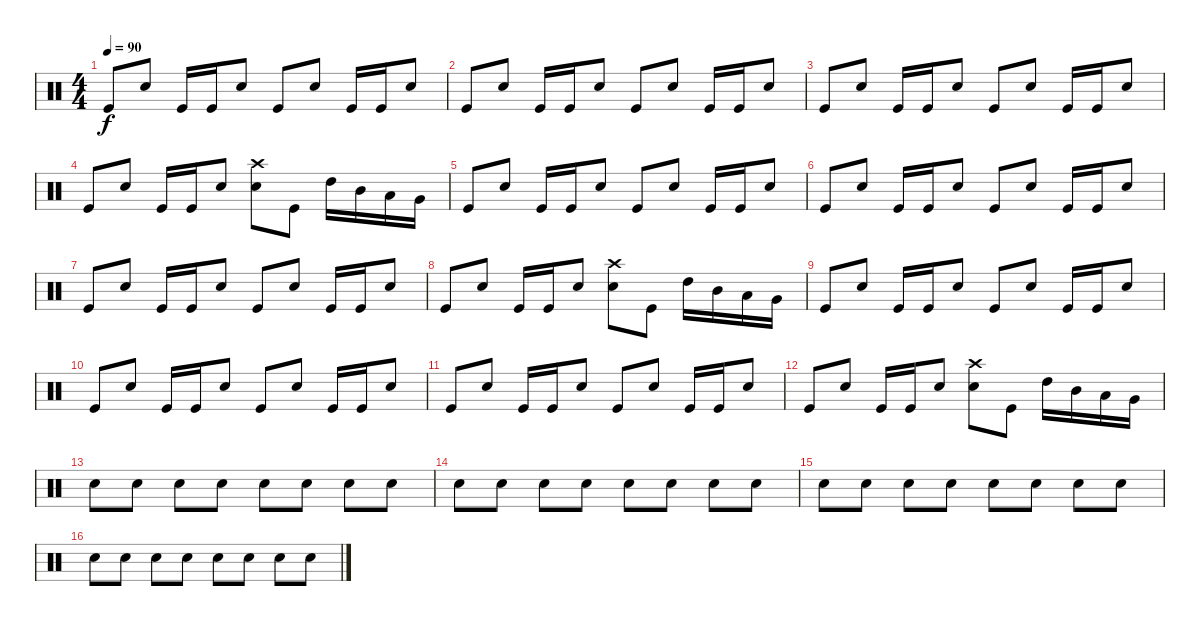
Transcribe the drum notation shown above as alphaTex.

\track "" {instrument percussion}
\staff {score}
\articulation defaults
\ts (4 4)
\tempo 90
\clef neutral
\ks c "Kick (hit)".8{dy f} "Snare (hit) 2".8 "Kick (hit)".16 "Kick (hit)".16 "Snare (hit) 2".8 "Kick (hit)".8 "Snare (hit) 2".8 "Kick (hit)".16 "Kick (hit)".16 "Snare (hit) 2".8
|
"Kick (hit)".8 "Snare (hit) 2".8 "Kick (hit)".16 "Kick (hit)".16 "Snare (hit) 2".8 "Kick (hit)".8 "Snare (hit) 2".8 "Kick (hit)".16 "Kick (hit)".16 "Snare (hit) 2".8 |
"Kick (hit)".8 "Snare (hit) 2".8 "Kick (hit)".16 "Kick (hit)".16 "Snare (hit) 2".8 "Kick (hit)".8 "Snare (hit) 2".8 "Kick (hit)".16 "Kick (hit)".16 "Snare (hit) 2".8 |
"Kick (hit)".8 "Snare (hit) 2".8 "Kick (hit)".16 "Kick (hit)".16 "Snare (hit) 2".8 ("Snare (hit) 2" "Crash high (hit)").8 "Kick (hit)".8 "High Tom (hit)".16 "Mid Tom (hit)".16 "Low Tom (hit)".16 "Very Low Tom (hit)".16 |
"Kick (hit)".8 "Snare (hit) 2".8 "Kick (hit)".16 "Kick (hit)".16 "Snare (hit) 2".8 "Kick (hit)".8 "Snare (hit) 2".8 "Kick (hit)".16 "Kick (hit)".16 "Snare (hit) 2".8 |
"Kick (hit)".8 "Snare (hit) 2".8 "Kick (hit)".16 "Kick (hit)".16 "Snare (hit) 2".8 "Kick (hit)".8 "Snare (hit) 2".8 "Kick (hit)".16 "Kick (hit)".16 "Snare (hit) 2".8 |
"Kick (hit)".8 "Snare (hit) 2".8 "Kick (hit)".16 "Kick (hit)".16 "Snare (hit) 2".8 "Kick (hit)".8 "Snare (hit) 2".8 "Kick (hit)".16 "Kick (hit)".16 "Snare (hit) 2".8 |
"Kick (hit)".8 "Snare (hit) 2".8 "Kick (hit)".16 "Kick (hit)".16 "Snare (hit) 2".8 ("Snare (hit) 2" "Crash high (hit)").8 "Kick (hit)".8 "High Tom (hit)".16 "Mid Tom (hit)".16 "Low Tom (hit)".16 "Very Low Tom (hit)".16 |
"Kick (hit)".8 "Snare (hit) 2".8 "Kick (hit)".16 "Kick (hit)".16 "Snare (hit) 2".8 "Kick (hit)".8 "Snare (hit) 2".8 "Kick (hit)".16 "Kick (hit)".16 "Snare (hit) 2".8 |
"Kick (hit)".8 "Snare (hit) 2".8 "Kick (hit)".16 "Kick (hit)".16 "Snare (hit) 2".8 "Kick (hit)".8 "Snare (hit) 2".8 "Kick (hit)".16 "Kick (hit)".16 "Snare (hit) 2".8 |
"Kick (hit)".8 "Snare (hit) 2".8 "Kick (hit)".16 "Kick (hit)".16 "Snare (hit) 2".8 "Kick (hit)".8 "Snare (hit) 2".8 "Kick (hit)".16 "Kick (hit)".16 "Snare (hit) 2".8 |
"Kick (hit)".8 "Snare (hit) 2".8 "Kick (hit)".16 "Kick (hit)".16 "Snare (hit) 2".8 ("Snare (hit) 2" "Crash high (hit)").8 "Kick (hit)".8 "High Tom (hit)".16 "Mid Tom (hit)".16 "Low Tom (hit)".16 "Very Low Tom (hit)".16 |
"Snare (hit) 2".8 "Snare (hit) 2".8 "Snare (hit) 2".8 "Snare (hit) 2".8 "Snare (hit) 2".8 "Snare (hit) 2".8 "Snare (hit) 2".8 "Snare (hit) 2".8 |
"Snare (hit) 2".8 "Snare (hit) 2".8 "Snare (hit) 2".8 "Snare (hit) 2".8 "Snare (hit) 2".8 "Snare (hit) 2".8 "Snare (hit) 2".8 "Snare (hit) 2".8 |
"Snare (hit) 2".8 "Snare (hit) 2".8 "Snare (hit) 2".8 "Snare (hit) 2".8 "Snare (hit) 2".8 "Snare (hit) 2".8 "Snare (hit) 2".8 "Snare (hit) 2".8 |
"Snare (hit) 2".8 "Snare (hit) 2".8 "Snare (hit) 2".8 "Snare (hit) 2".8 "Snare (hit) 2".8 "Snare (hit) 2".8 "Snare (hit) 2".8 "Snare (hit) 2".8
